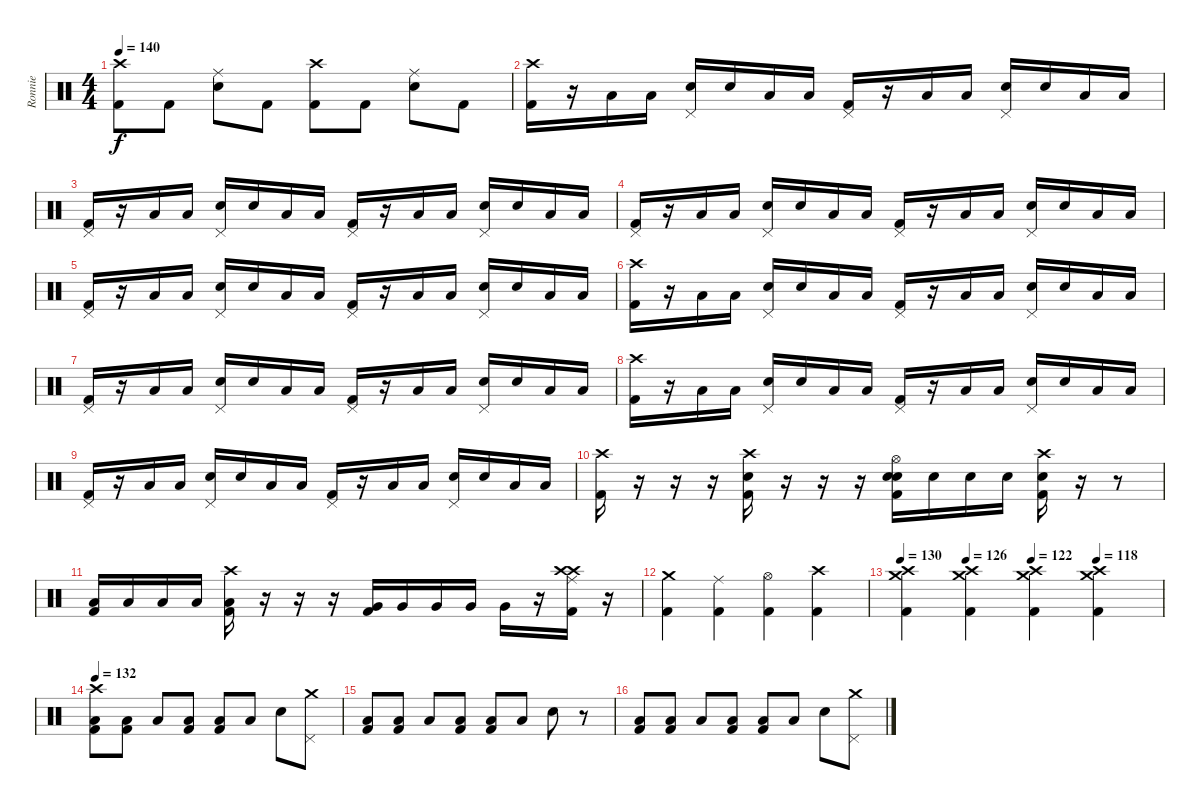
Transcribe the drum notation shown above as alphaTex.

\track ("Ronnie" "Ronnie") {instrument percussion}
\staff {score}
\articulation defaults
\ts (4 4)
\tempo 140
\clef neutral
\ks c
("Crash high (hit)" "Kick (hit) 2").8{dy f} "Kick (hit) 2".8 ("Electric Snare (hit)" "Ride (middle)").8 "Kick (hit) 2".8 ("Crash high (hit)" "Kick (hit) 2").8 "Kick (hit) 2".8 ("Electric Snare (hit)" "Ride (middle)").8 "Kick (hit) 2".8 |
("Crash high (hit)" "Kick (hit) 2").16 r.16 "Low Tom (hit)".16 "Low Tom (hit)".16 ("Pedal Hi-Hat (hit)" "Electric Snare (hit)").16 "Electric Snare (hit)".16 "Low Floor Tom (hit)".16 "Low Floor Tom (hit)".16 ("Pedal Hi-Hat (hit)" "Kick (hit) 2").16 r.16 "Low Tom (hit)".16 "Low Tom (hit)".16 ("Pedal Hi-Hat (hit)" "Electric Snare (hit)").16 "Electric Snare (hit)".16 "Low Floor Tom (hit)".16 "Low Floor Tom (hit)".16 |
("Pedal Hi-Hat (hit)" "Kick (hit) 2").16 r.16 "Low Tom (hit)".16 "Low Tom (hit)".16 ("Pedal Hi-Hat (hit)" "Electric Snare (hit)").16 "Electric Snare (hit)".16 "Low Floor Tom (hit)".16 "Low Floor Tom (hit)".16 ("Pedal Hi-Hat (hit)" "Kick (hit) 2").16 r.16 "Low Tom (hit)".16 "Low Tom (hit)".16 ("Pedal Hi-Hat (hit)" "Electric Snare (hit)").16 "Electric Snare (hit)".16 "Low Floor Tom (hit)".16 "Low Floor Tom (hit)".16 |
("Pedal Hi-Hat (hit)" "Kick (hit) 2").16 r.16 "Low Tom (hit)".16 "Low Tom (hit)".16 ("Pedal Hi-Hat (hit)" "Electric Snare (hit)").16 "Electric Snare (hit)".16 "Low Floor Tom (hit)".16 "Low Floor Tom (hit)".16 ("Pedal Hi-Hat (hit)" "Kick (hit) 2").16 r.16 "Low Tom (hit)".16 "Low Tom (hit)".16 ("Pedal Hi-Hat (hit)" "Electric Snare (hit)").16 "Electric Snare (hit)".16 "Low Floor Tom (hit)".16 "Low Floor Tom (hit)".16 |
("Pedal Hi-Hat (hit)" "Kick (hit) 2").16 r.16 "Low Tom (hit)".16 "Low Tom (hit)".16 ("Pedal Hi-Hat (hit)" "Electric Snare (hit)").16 "Electric Snare (hit)".16 "Low Floor Tom (hit)".16 "Low Floor Tom (hit)".16 ("Pedal Hi-Hat (hit)" "Kick (hit) 2").16 r.16 "Low Tom (hit)".16 "Low Tom (hit)".16 ("Pedal Hi-Hat (hit)" "Electric Snare (hit)").16 "Electric Snare (hit)".16 "Low Floor Tom (hit)".16 "Low Floor Tom (hit)".16 |
("Crash high (hit)" "Kick (hit) 2").16 r.16 "Low Tom (hit)".16 "Low Tom (hit)".16 ("Pedal Hi-Hat (hit)" "Electric Snare (hit)").16 "Electric Snare (hit)".16 "Low Floor Tom (hit)".16 "Low Floor Tom (hit)".16 ("Pedal Hi-Hat (hit)" "Kick (hit) 2").16 r.16 "Low Tom (hit)".16 "Low Tom (hit)".16 ("Pedal Hi-Hat (hit)" "Electric Snare (hit)").16 "Electric Snare (hit)".16 "Low Floor Tom (hit)".16 "Low Floor Tom (hit)".16 |
("Pedal Hi-Hat (hit)" "Kick (hit) 2").16 r.16 "Low Tom (hit)".16 "Low Tom (hit)".16 ("Pedal Hi-Hat (hit)" "Electric Snare (hit)").16 "Electric Snare (hit)".16 "Low Floor Tom (hit)".16 "Low Floor Tom (hit)".16 ("Pedal Hi-Hat (hit)" "Kick (hit) 2").16 r.16 "Low Tom (hit)".16 "Low Tom (hit)".16 ("Pedal Hi-Hat (hit)" "Electric Snare (hit)").16 "Electric Snare (hit)".16 "Low Floor Tom (hit)".16 "Low Floor Tom (hit)".16 |
("Crash high (hit)" "Kick (hit) 2").16 r.16 "Low Tom (hit)".16 "Low Tom (hit)".16 ("Pedal Hi-Hat (hit)" "Electric Snare (hit)").16 "Electric Snare (hit)".16 "Low Floor Tom (hit)".16 "Low Floor Tom (hit)".16 ("Pedal Hi-Hat (hit)" "Kick (hit) 2").16 r.16 "Low Tom (hit)".16 "Low Tom (hit)".16 ("Pedal Hi-Hat (hit)" "Electric Snare (hit)").16 "Electric Snare (hit)".16 "Low Floor Tom (hit)".16 "Low Floor Tom (hit)".16 |
("Pedal Hi-Hat (hit)" "Kick (hit) 2").16 r.16 "Low Tom (hit)".16 "Low Tom (hit)".16 ("Pedal Hi-Hat (hit)" "Electric Snare (hit)").16 "Electric Snare (hit)".16 "Low Floor Tom (hit)".16 "Low Floor Tom (hit)".16 ("Pedal Hi-Hat (hit)" "Kick (hit) 2").16 r.16 "Low Tom (hit)".16 "Low Tom (hit)".16 ("Pedal Hi-Hat (hit)" "Electric Snare (hit)").16 "Electric Snare (hit)".16 "Low Floor Tom (hit)".16 "Low Floor Tom (hit)".16 |
("Crash high (hit)" "Kick (hit) 2").16 r.16 r.16 r.16 ("Crash high (hit)" "Electric Snare (hit)" "Kick (hit) 2").16 r.16 r.16 r.16 ("Electric Snare (hit)" "Hi-Hat (open)" "Kick (hit) 2" "Electric Snare (hit)").16 "Electric Snare (hit)".16 "Electric Snare (hit)".16 "Electric Snare (hit)".16 ("Crash high (hit)" "Kick (hit) 2" "Electric Snare (hit)").16 r.16 r.8 |
("Kick (hit) 2" "Low Tom (hit)").16 "Low Tom (hit)".16 "Low Tom (hit)".16 "Low Tom (hit)".16 ("Crash high (hit)" "Kick (hit) 2" "Low Tom (hit)").16 r.16 r.16 r.16 ("Kick (hit) 2" "Very Low Tom (hit)").16 "Very Low Tom (hit)".16 "Very Low Tom (hit)".16 "Very Low Tom (hit)".16 "Very Low Tom (hit)".16 r.16 ("Crash high (hit)" "Ride (middle)" "Kick (hit) 2" "Crash high (hit)").16 r.16 |
("Kick (hit) 2" "Crash medium (hit)").4 ("Kick (hit) 2" "Ride (middle)").4 ("Kick (hit) 2" "Hi-Hat (open)").4 ("Kick (hit) 2" "Crash high (hit)").4 |
\tempo 130
\tempo (126 0.25)
\tempo (122 0.5)
\tempo (118 0.75)
("Kick (hit) 2" "Crash high (hit)" "Crash medium (hit)").4 ("Kick (hit) 2" "Crash high (hit)" "Crash medium (hit)").4 ("Kick (hit) 2" "Crash high (hit)" "Crash medium (hit)").4 ("Kick (hit) 2" "Crash high (hit)" "Crash medium (hit)").4 |
\tempo 132
("Crash high (hit)" "Low Floor Tom (hit)" "Kick (hit) 2").8 ("Low Floor Tom (hit)" "Kick (hit) 2").8 "Low Floor Tom (hit)".8 ("Low Floor Tom (hit)" "Kick (hit) 2").8 ("Low Floor Tom (hit)" "Kick (hit) 2").8 "Low Floor Tom (hit)".8 "Electric Snare (hit)".8 ("Crash medium (hit)" "Pedal Hi-Hat (hit)").8 |
("Low Floor Tom (hit)" "Kick (hit) 2").8 ("Low Floor Tom (hit)" "Kick (hit) 2").8 "Low Floor Tom (hit)".8 ("Low Floor Tom (hit)" "Kick (hit) 2").8 ("Low Floor Tom (hit)" "Kick (hit) 2").8 "Low Floor Tom (hit)".8 "Electric Snare (hit)".8 r.8 |
("Low Floor Tom (hit)" "Kick (hit) 2").8 ("Low Floor Tom (hit)" "Kick (hit) 2").8 "Low Floor Tom (hit)".8 ("Low Floor Tom (hit)" "Kick (hit) 2").8 ("Low Floor Tom (hit)" "Kick (hit) 2").8 "Low Floor Tom (hit)".8 "Electric Snare (hit)".8 ("Crash medium (hit)" "Pedal Hi-Hat (hit)").8
